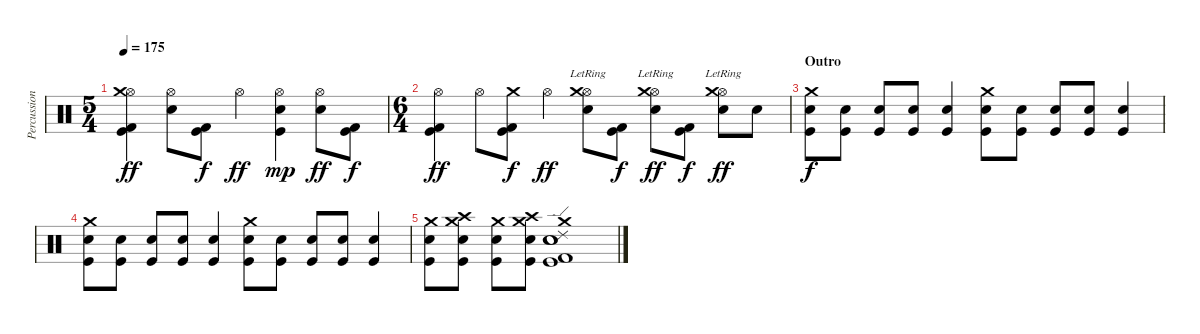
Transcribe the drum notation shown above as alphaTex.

\track ("Percussion" "Percussion") {instrument percussion}
\staff {score}
\articulation defaults
\ts (5 4)
\tempo 175
\clef neutral
\ks c
("Hi-Hat (open)" "Crash medium (hit)" "Kick (hit) 2" "Kick (hit)").4{dy ff} ("Hi-Hat (open)" "Electric Snare (hit)").8 ("Kick (hit) 2" "Kick (hit)").8{dy f} "Hi-Hat (open)".4{dy ff} ("Hi-Hat (open)" "Electric Snare (hit)" "Kick (hit)").4{dy mp} ("Hi-Hat (open)" "Electric Snare (hit)").8{dy ff} ("Kick (hit) 2" "Kick (hit)").8{dy f} |
\ts (6 4)
("Hi-Hat (open)" "Kick (hit) 2" "Kick (hit)").4{dy ff} "Hi-Hat (open)".8 ("Crash medium (hit)" "Kick (hit) 2" "Kick (hit)").8{dy f} "Hi-Hat (open)".4{dy ff} ("Hi-Hat (open)"{lr} "Crash medium (hit)"{lr} "Electric Snare (hit)"{lr}).8 ("Kick (hit) 2" "Kick (hit)").8{dy f} ("Hi-Hat (open)"{lr} "Crash medium (hit)"{lr} "Electric Snare (hit)"{lr}).8{dy ff} ("Kick (hit) 2" "Kick (hit)").8{dy f} ("Hi-Hat (open)"{lr} "Crash medium (hit)"{lr} "Electric Snare (hit)").8{dy ff} "Electric Snare (hit)".8 |
\section ("" "Outro")
("Crash medium (hit)" "Electric Snare (hit)" "Kick (hit)").8{dy f} ("Electric Snare (hit)" "Kick (hit)").8 ("Electric Snare (hit)" "Kick (hit)").8 ("Electric Snare (hit)" "Kick (hit)").8 ("Electric Snare (hit)" "Kick (hit)").4 ("Crash medium (hit)" "Electric Snare (hit)" "Kick (hit)").8 ("Electric Snare (hit)" "Kick (hit)").8 ("Electric Snare (hit)" "Kick (hit)").8 ("Electric Snare (hit)" "Kick (hit)").8 ("Electric Snare (hit)" "Kick (hit)").4 |
("Crash medium (hit)" "Electric Snare (hit)" "Kick (hit)").8 ("Electric Snare (hit)" "Kick (hit)").8 ("Electric Snare (hit)" "Kick (hit)").8 ("Electric Snare (hit)" "Kick (hit)").8 ("Electric Snare (hit)" "Kick (hit)").4 ("Crash medium (hit)" "Electric Snare (hit)" "Kick (hit)").8 ("Electric Snare (hit)" "Kick (hit)").8 ("Electric Snare (hit)" "Kick (hit)").8 ("Electric Snare (hit)" "Kick (hit)").8 ("Electric Snare (hit)" "Kick (hit)").4 |
("Crash medium (hit)" "Electric Snare (hit)" "Kick (hit)").8 ("Crash medium (hit)" "Crash high (hit)" "Electric Snare (hit)" "Kick (hit)").8 ("Crash medium (hit)" "Electric Snare (hit)" "Kick (hit)").8 ("Crash medium (hit)" "Crash high (hit)" "Electric Snare (hit)" "Kick (hit)").8 ("Crash medium (hit)" "Ride (edge) 2" "Electric Snare (hit)" "Snare (hit) 2" "Kick (hit) 2" "Kick (hit)").1
